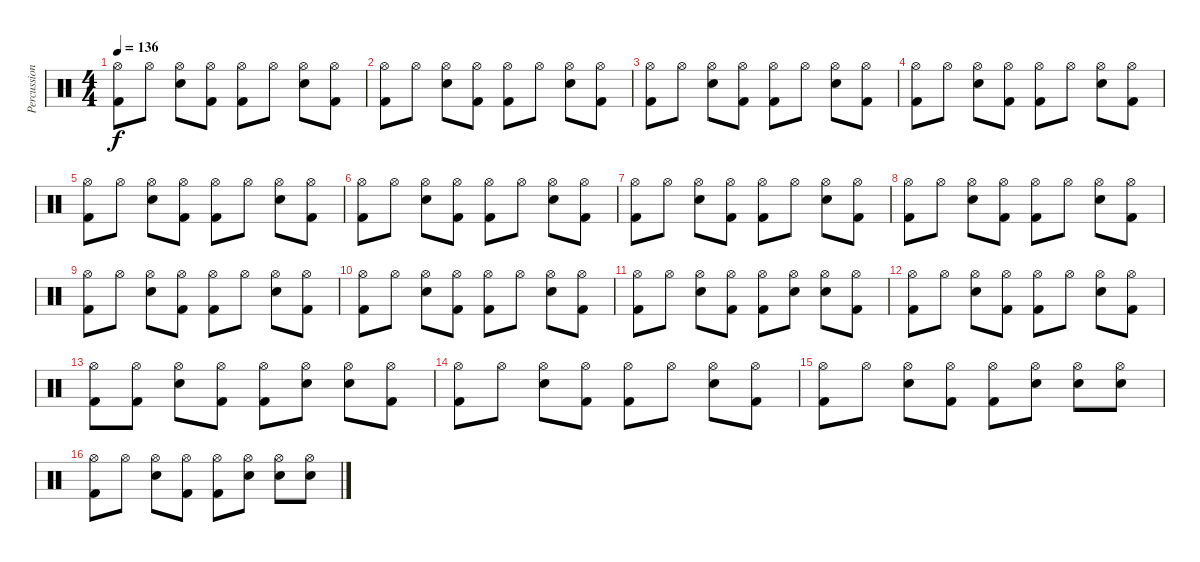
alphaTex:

\track ("Percussion" "Percussion") {instrument percussion}
\staff {score}
\articulation defaults
\ts (4 4)
\tempo 136
\clef neutral
\ks c
("Hi-Hat (open)" "Kick (hit) 2").8{dy f} "Hi-Hat (open)".8 ("Hi-Hat (open)" "Electric Snare (hit)").8 ("Hi-Hat (open)" "Kick (hit) 2").8 ("Hi-Hat (open)" "Kick (hit) 2").8 "Hi-Hat (open)".8 ("Hi-Hat (open)" "Electric Snare (hit)").8 ("Hi-Hat (open)" "Kick (hit) 2").8 |
("Hi-Hat (open)" "Kick (hit) 2").8 "Hi-Hat (open)".8 ("Hi-Hat (open)" "Electric Snare (hit)").8 ("Hi-Hat (open)" "Kick (hit) 2").8 ("Hi-Hat (open)" "Kick (hit) 2").8 "Hi-Hat (open)".8 ("Hi-Hat (open)" "Electric Snare (hit)").8 ("Hi-Hat (open)" "Kick (hit) 2").8 |
("Hi-Hat (open)" "Kick (hit) 2").8 "Hi-Hat (open)".8 ("Hi-Hat (open)" "Electric Snare (hit)").8 ("Hi-Hat (open)" "Kick (hit) 2").8 ("Hi-Hat (open)" "Kick (hit) 2").8 "Hi-Hat (open)".8 ("Hi-Hat (open)" "Electric Snare (hit)").8 ("Hi-Hat (open)" "Kick (hit) 2").8 |
("Hi-Hat (open)" "Kick (hit) 2").8 "Hi-Hat (open)".8 ("Hi-Hat (open)" "Electric Snare (hit)").8 ("Hi-Hat (open)" "Kick (hit) 2").8 ("Hi-Hat (open)" "Kick (hit) 2").8 "Hi-Hat (open)".8 ("Hi-Hat (open)" "Electric Snare (hit)").8 ("Hi-Hat (open)" "Kick (hit) 2").8 |
("Hi-Hat (open)" "Kick (hit) 2").8 "Hi-Hat (open)".8 ("Hi-Hat (open)" "Electric Snare (hit)").8 ("Hi-Hat (open)" "Kick (hit) 2").8 ("Hi-Hat (open)" "Kick (hit) 2").8 "Hi-Hat (open)".8 ("Hi-Hat (open)" "Electric Snare (hit)").8 ("Hi-Hat (open)" "Kick (hit) 2").8 |
("Hi-Hat (open)" "Kick (hit) 2").8 "Hi-Hat (open)".8 ("Hi-Hat (open)" "Electric Snare (hit)").8 ("Hi-Hat (open)" "Kick (hit) 2").8 ("Hi-Hat (open)" "Kick (hit) 2").8 "Hi-Hat (open)".8 ("Hi-Hat (open)" "Electric Snare (hit)").8 ("Hi-Hat (open)" "Kick (hit) 2").8 |
("Hi-Hat (open)" "Kick (hit) 2").8 "Hi-Hat (open)".8 ("Hi-Hat (open)" "Electric Snare (hit)").8 ("Hi-Hat (open)" "Kick (hit) 2").8 ("Hi-Hat (open)" "Kick (hit) 2").8 "Hi-Hat (open)".8 ("Hi-Hat (open)" "Electric Snare (hit)").8 ("Hi-Hat (open)" "Kick (hit) 2").8 |
("Hi-Hat (open)" "Kick (hit) 2").8 "Hi-Hat (open)".8 ("Hi-Hat (open)" "Electric Snare (hit)").8 ("Hi-Hat (open)" "Kick (hit) 2").8 ("Hi-Hat (open)" "Kick (hit) 2").8 "Hi-Hat (open)".8 ("Hi-Hat (open)" "Electric Snare (hit)").8 ("Hi-Hat (open)" "Kick (hit) 2").8 |
("Hi-Hat (open)" "Kick (hit) 2").8 "Hi-Hat (open)".8 ("Hi-Hat (open)" "Electric Snare (hit)").8 ("Hi-Hat (open)" "Kick (hit) 2").8 ("Hi-Hat (open)" "Kick (hit) 2").8 "Hi-Hat (open)".8 ("Hi-Hat (open)" "Electric Snare (hit)").8 ("Hi-Hat (open)" "Kick (hit) 2").8 |
("Hi-Hat (open)" "Kick (hit) 2").8 "Hi-Hat (open)".8 ("Hi-Hat (open)" "Electric Snare (hit)").8 ("Hi-Hat (open)" "Kick (hit) 2").8 ("Hi-Hat (open)" "Kick (hit) 2").8 "Hi-Hat (open)".8 ("Hi-Hat (open)" "Electric Snare (hit)").8 ("Hi-Hat (open)" "Kick (hit) 2").8 |
("Hi-Hat (open)" "Kick (hit) 2").8 "Hi-Hat (open)".8 ("Hi-Hat (open)" "Electric Snare (hit)").8 ("Hi-Hat (open)" "Kick (hit) 2").8 ("Hi-Hat (open)" "Kick (hit) 2").8 ("Hi-Hat (open)" "Electric Snare (hit)").8 ("Hi-Hat (open)" "Electric Snare (hit)").8 ("Hi-Hat (open)" "Kick (hit) 2").8 |
("Hi-Hat (open)" "Kick (hit) 2").8 "Hi-Hat (open)".8 ("Hi-Hat (open)" "Electric Snare (hit)").8 ("Hi-Hat (open)" "Kick (hit) 2").8 ("Hi-Hat (open)" "Kick (hit) 2").8 "Hi-Hat (open)".8 ("Hi-Hat (open)" "Electric Snare (hit)").8 ("Hi-Hat (open)" "Kick (hit) 2").8 |
("Hi-Hat (open)" "Kick (hit) 2").8 ("Hi-Hat (open)" "Kick (hit) 2").8 ("Hi-Hat (open)" "Electric Snare (hit)").8 ("Hi-Hat (open)" "Kick (hit) 2").8 ("Hi-Hat (open)" "Kick (hit) 2").8 ("Hi-Hat (open)" "Electric Snare (hit)").8 ("Hi-Hat (open)" "Electric Snare (hit)").8 ("Hi-Hat (open)" "Kick (hit) 2").8 |
("Hi-Hat (open)" "Kick (hit) 2").8 "Hi-Hat (open)".8 ("Hi-Hat (open)" "Electric Snare (hit)").8 ("Hi-Hat (open)" "Kick (hit) 2").8 ("Hi-Hat (open)" "Kick (hit) 2").8 "Hi-Hat (open)".8 ("Hi-Hat (open)" "Electric Snare (hit)").8 ("Hi-Hat (open)" "Kick (hit) 2").8 |
("Hi-Hat (open)" "Kick (hit) 2").8 "Hi-Hat (open)".8 ("Hi-Hat (open)" "Electric Snare (hit)").8 ("Hi-Hat (open)" "Kick (hit) 2").8 ("Hi-Hat (open)" "Kick (hit) 2").8 ("Hi-Hat (open)" "Electric Snare (hit)").8 ("Hi-Hat (open)" "Electric Snare (hit)").8 ("Hi-Hat (open)" "Electric Snare (hit)").8 |
("Hi-Hat (open)" "Kick (hit) 2").8 "Hi-Hat (open)".8 ("Hi-Hat (open)" "Electric Snare (hit)").8 ("Hi-Hat (open)" "Kick (hit) 2").8 ("Hi-Hat (open)" "Kick (hit) 2").8 ("Hi-Hat (open)" "Electric Snare (hit)").8 ("Hi-Hat (open)" "Electric Snare (hit)").8 ("Hi-Hat (open)" "Electric Snare (hit)").8
